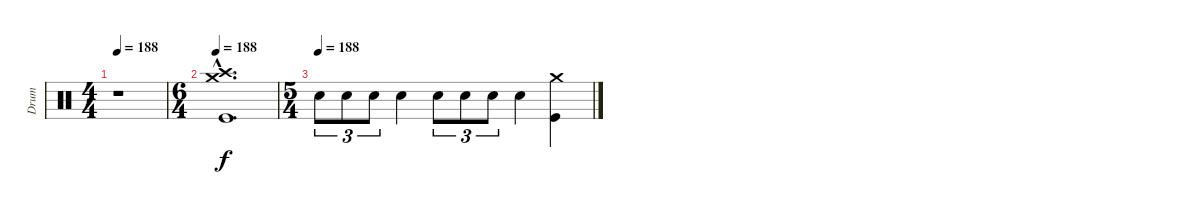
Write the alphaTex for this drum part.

\track ("Drum" "Drum") {instrument percussion}
\staff {score}
\articulation defaults
\ts (4 4)
\tempo 188
\clef neutral
\ks c
r.1{dy f} |
\ts (6 4)
\tempo 188
("Crash medium (hit)"{hac} "Crash high (hit)"{hac} "Kick (hit)"{hac}).1{d} |
\ts (5 4)
\tempo (188)
"Snare (hit) 2".8{tu (3 2)} "Snare (hit) 2".8{tu (3 2)} "Snare (hit) 2".8{tu (3 2)} "Snare (hit) 2".4 "Snare (hit) 2".8{tu (3 2)} "Snare (hit) 2".8{tu (3 2)} "Snare (hit) 2".8{tu (3 2)} "Snare (hit) 2".4 ("Crash medium (hit)" "Kick (hit)").4
